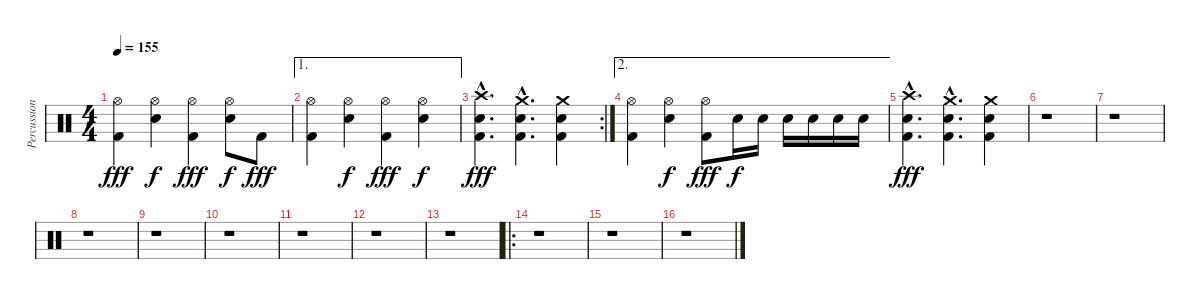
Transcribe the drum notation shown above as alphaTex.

\track ("Percussion" "Percussion") {instrument percussion}
\staff {score}
\articulation defaults
\ts (4 4)
\tempo 155
\clef neutral
\ks c
("Hi-Hat (open)" "Kick (hit) 2").4{dy fff} ("Hi-Hat (open)" "Snare (hit) 2").4{dy f} ("Hi-Hat (open)" "Kick (hit) 2").4{dy fff} ("Hi-Hat (open)" "Snare (hit) 2").8{dy f} "Kick (hit) 2".8{dy fff} |
\ae 1
("Hi-Hat (open)" "Kick (hit) 2").4 ("Hi-Hat (open)" "Snare (hit) 2").4{dy f} ("Hi-Hat (open)" "Kick (hit) 2").4{dy fff} ("Hi-Hat (open)" "Snare (hit) 2").4{dy f} |
\rc 2
("Crash high (hit)"{hac} "Snare (hit) 2"{hac} "Kick (hit) 2"{hac}).4{d dy fff} ("Crash medium (hit)"{hac} "Snare (hit) 2"{hac} "Kick (hit) 2"{hac}).4{d} ("Crash medium (hit)" "Snare (hit) 2" "Kick (hit) 2").4 |
\ae 2
("Hi-Hat (open)" "Kick (hit) 2").4 ("Hi-Hat (open)" "Snare (hit) 2").4{dy f} ("Hi-Hat (open)" "Kick (hit) 2").8{dy fff} "Snare (hit) 2".16{dy f} "Snare (hit) 2".16 "Snare (hit) 2".16 "Snare (hit) 2".16 "Snare (hit) 2".16 "Snare (hit) 2".16 |
("Crash high (hit)"{hac} "Snare (hit) 2"{hac} "Kick (hit) 2"{hac}).4{d dy fff} ("Crash medium (hit)"{hac} "Snare (hit) 2"{hac} "Kick (hit) 2"{hac}).4{d} ("Crash medium (hit)" "Snare (hit) 2" "Kick (hit) 2").4 |
r.1 |
r.1 |
r.1 |
r.1 |
r.1 |
r.1 |
r.1 |
r.1 |
\ro
r.1 |
r.1 |
r.1
